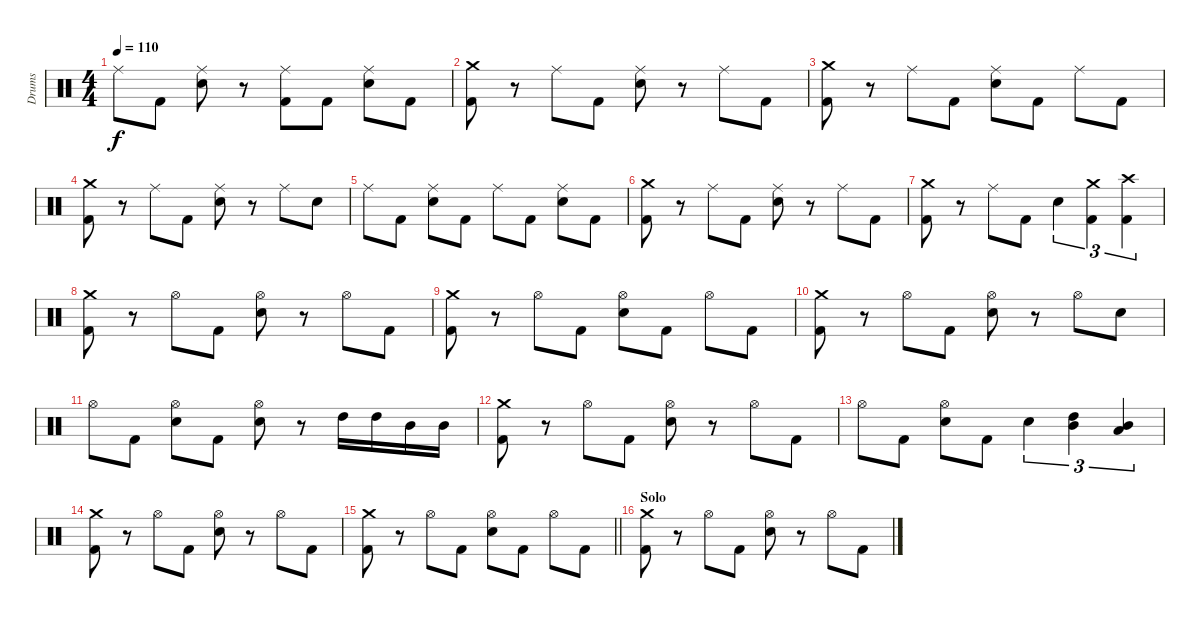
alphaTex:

\track ("Drums" "Drums") {instrument percussion}
\staff {score}
\articulation defaults
\ts (4 4)
\tempo 110
\clef neutral
\ks c "Ride (middle)".8{dy f} "Kick (hit) 2".8
("Ride (middle)" "Snare (hit) 2").8 r.8 ("Ride (middle)" "Kick (hit) 2").8 "Kick (hit) 2".8 ("Ride (middle)" "Snare (hit) 2").8 "Kick (hit) 2".8 |
("Crash medium (hit)" "Kick (hit) 2").8 r.8 "Ride (middle)".8 "Kick (hit) 2".8 ("Ride (middle)" "Snare (hit) 2").8 r.8 "Ride (middle)".8 "Kick (hit) 2".8 |
("Crash medium (hit)" "Kick (hit) 2").8 r.8 "Ride (middle)".8 "Kick (hit) 2".8 ("Ride (middle)" "Snare (hit) 2").8 "Kick (hit) 2".8 "Ride (middle)".8 "Kick (hit) 2".8 |
("Crash medium (hit)" "Kick (hit) 2").8 r.8 "Ride (middle)".8 "Kick (hit) 2".8 ("Ride (middle)" "Snare (hit) 2").8 r.8 "Ride (middle)".8 "Snare (hit) 2".8 |
"Ride (middle)".8 "Kick (hit) 2".8 ("Ride (middle)" "Snare (hit) 2").8 "Kick (hit) 2".8 "Ride (middle)".8 "Kick (hit) 2".8 ("Ride (middle)" "Snare (hit) 2").8 "Kick (hit) 2".8 |
("Crash medium (hit)" "Kick (hit) 2").8 r.8 "Ride (middle)".8 "Kick (hit) 2".8 ("Ride (middle)" "Snare (hit) 2").8 r.8 "Ride (middle)".8 "Kick (hit) 2".8 |
("Crash medium (hit)" "Kick (hit) 2").8 r.8 "Ride (middle)".8 "Kick (hit) 2".8 "Snare (hit) 2".4{tu (3 2)} ("Crash medium (hit)" "Kick (hit) 2").4{tu (3 2)} ("Crash high (hit)" "Kick (hit) 2").4{tu (3 2)} |
("Crash medium (hit)" "Kick (hit) 2").8 r.8 "Hi-Hat (open)".8 "Kick (hit) 2".8 ("Hi-Hat (open)" "Snare (hit) 2").8 r.8 "Hi-Hat (open)".8 "Kick (hit) 2".8 |
("Crash medium (hit)" "Kick (hit) 2").8 r.8 "Hi-Hat (open)".8 "Kick (hit) 2".8 ("Hi-Hat (open)" "Snare (hit) 2").8 "Kick (hit) 2".8 "Hi-Hat (open)".8 "Kick (hit) 2".8 |
("Crash medium (hit)" "Kick (hit) 2").8 r.8 "Hi-Hat (open)".8 "Kick (hit) 2".8 ("Hi-Hat (open)" "Snare (hit) 2").8 r.8 "Hi-Hat (open)".8 "Snare (hit) 2".8 |
"Hi-Hat (open)".8 "Kick (hit) 2".8 ("Hi-Hat (open)" "Snare (hit) 2").8 "Kick (hit) 2".8 ("Hi-Hat (open)" "Snare (hit) 2").8 r.8 "High Tom (hit)".16 "High Tom (hit)".16 "Mid Tom (hit)".16 "Mid Tom (hit)".16 |
("Crash medium (hit)" "Kick (hit) 2").8 r.8 "Hi-Hat (open)".8 "Kick (hit) 2".8 ("Hi-Hat (open)" "Snare (hit) 2").8 r.8 "Hi-Hat (open)".8 "Kick (hit) 2".8 |
"Hi-Hat (open)".8 "Kick (hit) 2".8 ("Hi-Hat (open)" "Snare (hit) 2").8 "Kick (hit) 2".8 "Snare (hit) 2".4{tu (3 2)} ("Mid Tom (hit)" "High Tom (hit)").4{tu (3 2)} ("Mid Tom (hit)" "Low Tom (hit)").4{tu (3 2)} |
("Crash medium (hit)" "Kick (hit) 2").8 r.8 "Hi-Hat (open)".8 "Kick (hit) 2".8 ("Hi-Hat (open)" "Snare (hit) 2").8 r.8 "Hi-Hat (open)".8 "Kick (hit) 2".8 |
\barLineRight lightlight
("Crash medium (hit)" "Kick (hit) 2").8 r.8 "Hi-Hat (open)".8 "Kick (hit) 2".8 ("Hi-Hat (open)" "Snare (hit) 2").8 "Kick (hit) 2".8 "Hi-Hat (open)".8 "Kick (hit) 2".8 |
\section ("" "Solo")
("Crash medium (hit)" "Kick (hit) 2").8 r.8 "Hi-Hat (open)".8 "Kick (hit) 2".8 ("Hi-Hat (open)" "Snare (hit) 2").8 r.8 "Hi-Hat (open)".8 "Kick (hit) 2".8
